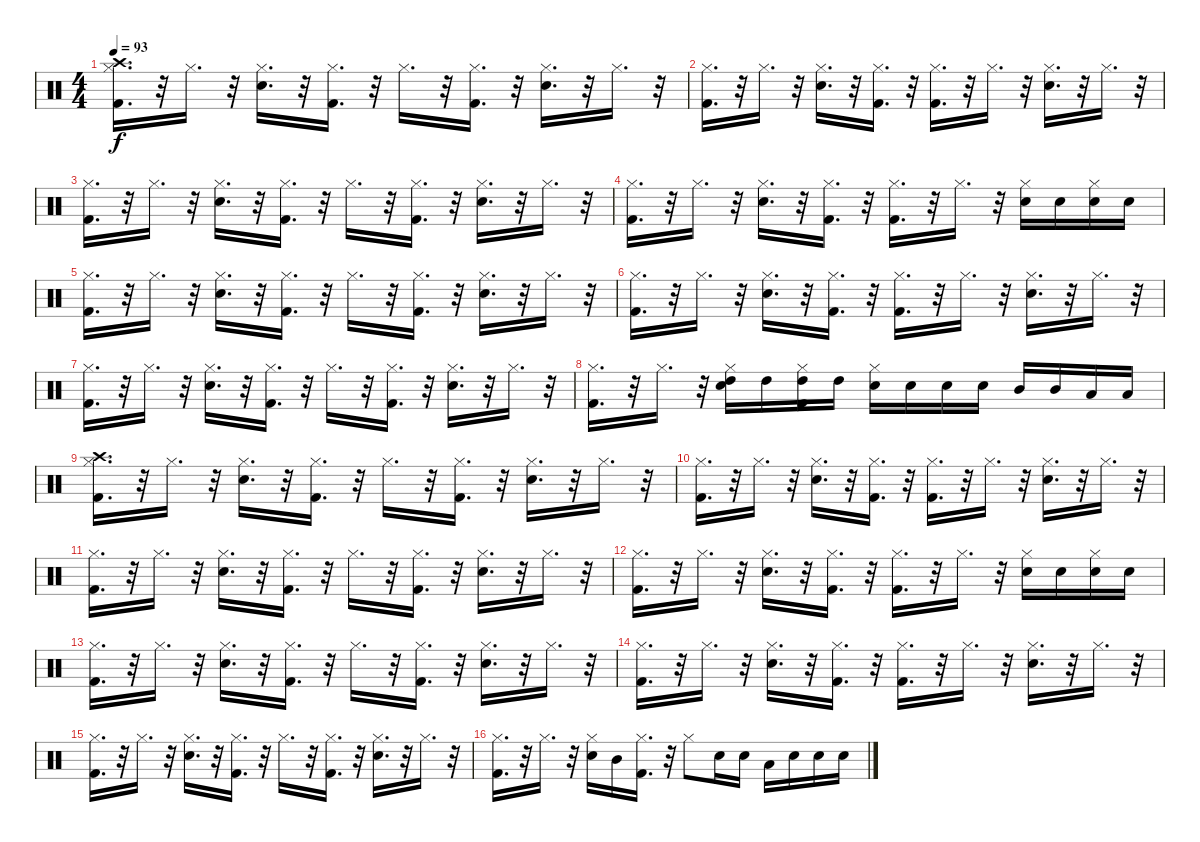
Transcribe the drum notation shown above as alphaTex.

\track "" {instrument percussion}
\staff {score}
\articulation defaults
\ts (4 4)
\tempo 93
\clef neutral
\ks c
("Hi-Hat (closed)" "Crash high (hit)" "Kick (hit) 2").16{d dy f} r.32 "Hi-Hat (closed)".16{d} r.32 ("Hi-Hat (closed)" "Snare (hit) 2").16{d} r.32 ("Hi-Hat (closed)" "Kick (hit) 2").16{d} r.32 "Hi-Hat (closed)".16{d} r.32 ("Hi-Hat (closed)" "Kick (hit) 2").16{d} r.32 ("Hi-Hat (closed)" "Snare (hit) 2").16{d} r.32 "Hi-Hat (closed)".16{d} r.32 |
("Hi-Hat (closed)" "Kick (hit) 2").16{d} r.32 "Hi-Hat (closed)".16{d} r.32 ("Hi-Hat (closed)" "Snare (hit) 2").16{d} r.32 ("Hi-Hat (closed)" "Kick (hit) 2").16{d} r.32 ("Hi-Hat (closed)" "Kick (hit) 2").16{d} r.32 "Hi-Hat (closed)".16{d} r.32 ("Hi-Hat (closed)" "Snare (hit) 2").16{d} r.32 "Hi-Hat (closed)".16{d} r.32 |
("Hi-Hat (closed)" "Kick (hit) 2").16{d} r.32 "Hi-Hat (closed)".16{d} r.32 ("Hi-Hat (closed)" "Snare (hit) 2").16{d} r.32 ("Hi-Hat (closed)" "Kick (hit) 2").16{d} r.32 "Hi-Hat (closed)".16{d} r.32 ("Hi-Hat (closed)" "Kick (hit) 2").16{d} r.32 ("Hi-Hat (closed)" "Snare (hit) 2").16{d} r.32 "Hi-Hat (closed)".16{d} r.32 |
("Hi-Hat (closed)" "Kick (hit) 2").16{d} r.32 "Hi-Hat (closed)".16{d} r.32 ("Hi-Hat (closed)" "Snare (hit) 2").16{d} r.32 ("Hi-Hat (closed)" "Kick (hit) 2").16{d} r.32 ("Hi-Hat (closed)" "Kick (hit) 2").16{d} r.32 "Hi-Hat (closed)".16{d} r.32 ("Hi-Hat (closed)" "Snare (hit) 2").16 "Snare (hit) 2".16 ("Snare (hit) 2" "Hi-Hat (closed)").16 "Snare (hit) 2".16 |
("Hi-Hat (closed)" "Kick (hit) 2").16{d} r.32 "Hi-Hat (closed)".16{d} r.32 ("Hi-Hat (closed)" "Snare (hit) 2").16{d} r.32 ("Hi-Hat (closed)" "Kick (hit) 2").16{d} r.32 "Hi-Hat (closed)".16{d} r.32 ("Hi-Hat (closed)" "Kick (hit) 2").16{d} r.32 ("Hi-Hat (closed)" "Snare (hit) 2").16{d} r.32 "Hi-Hat (closed)".16{d} r.32 |
("Hi-Hat (closed)" "Kick (hit) 2").16{d} r.32 "Hi-Hat (closed)".16{d} r.32 ("Hi-Hat (closed)" "Snare (hit) 2").16{d} r.32 ("Hi-Hat (closed)" "Kick (hit) 2").16{d} r.32 ("Hi-Hat (closed)" "Kick (hit) 2").16{d} r.32 "Hi-Hat (closed)".16{d} r.32 ("Hi-Hat (closed)" "Snare (hit) 2").16{d} r.32 "Hi-Hat (closed)".16{d} r.32 |
("Hi-Hat (closed)" "Kick (hit) 2").16{d} r.32 "Hi-Hat (closed)".16{d} r.32 ("Hi-Hat (closed)" "Snare (hit) 2").16{d} r.32 ("Hi-Hat (closed)" "Kick (hit) 2").16{d} r.32 "Hi-Hat (closed)".16{d} r.32 ("Hi-Hat (closed)" "Kick (hit) 2").16{d} r.32 ("Hi-Hat (closed)" "Snare (hit) 2").16{d} r.32 "Hi-Hat (closed)".16{d} r.32 |
("Hi-Hat (closed)" "Kick (hit) 2").16{d} r.32 "Hi-Hat (closed)".16{d} r.32 ("High Tom (hit)" "Hi-Hat (closed)" "Snare (hit) 2").16 "High Tom (hit)".16 ("High Tom (hit)" "Hi-Hat (closed)" "Kick (hit) 2").16 "High Tom (hit)".16 ("Snare (hit) 2" "Hi-Hat (closed)").16 "Snare (hit) 2".16 "Snare (hit) 2".16 "Snare (hit) 2".16 "Mid Tom (hit)".16 "Mid Tom (hit)".16 "Low Tom (hit)".16 "Low Tom (hit)".16 |
("Hi-Hat (closed)" "Crash high (hit)" "Kick (hit) 2").16{d} r.32 "Hi-Hat (closed)".16{d} r.32 ("Hi-Hat (closed)" "Snare (hit) 2").16{d} r.32 ("Hi-Hat (closed)" "Kick (hit) 2").16{d} r.32 "Hi-Hat (closed)".16{d} r.32 ("Hi-Hat (closed)" "Kick (hit) 2").16{d} r.32 ("Hi-Hat (closed)" "Snare (hit) 2").16{d} r.32 "Hi-Hat (closed)".16{d} r.32 |
("Hi-Hat (closed)" "Kick (hit) 2").16{d} r.32 "Hi-Hat (closed)".16{d} r.32 ("Hi-Hat (closed)" "Snare (hit) 2").16{d} r.32 ("Hi-Hat (closed)" "Kick (hit) 2").16{d} r.32 ("Hi-Hat (closed)" "Kick (hit) 2").16{d} r.32 "Hi-Hat (closed)".16{d} r.32 ("Hi-Hat (closed)" "Snare (hit) 2").16{d} r.32 "Hi-Hat (closed)".16{d} r.32 |
("Hi-Hat (closed)" "Kick (hit) 2").16{d} r.32 "Hi-Hat (closed)".16{d} r.32 ("Hi-Hat (closed)" "Snare (hit) 2").16{d} r.32 ("Hi-Hat (closed)" "Kick (hit) 2").16{d} r.32 "Hi-Hat (closed)".16{d} r.32 ("Hi-Hat (closed)" "Kick (hit) 2").16{d} r.32 ("Hi-Hat (closed)" "Snare (hit) 2").16{d} r.32 "Hi-Hat (closed)".16{d} r.32 |
("Hi-Hat (closed)" "Kick (hit) 2").16{d} r.32 "Hi-Hat (closed)".16{d} r.32 ("Hi-Hat (closed)" "Snare (hit) 2").16{d} r.32 ("Hi-Hat (closed)" "Kick (hit) 2").16{d} r.32 ("Hi-Hat (closed)" "Kick (hit) 2").16{d} r.32 "Hi-Hat (closed)".16{d} r.32 ("Hi-Hat (closed)" "Snare (hit) 2").16 "Snare (hit) 2".16 ("Snare (hit) 2" "Hi-Hat (closed)").16 "Snare (hit) 2".16 |
("Hi-Hat (closed)" "Kick (hit) 2").16{d} r.32 "Hi-Hat (closed)".16{d} r.32 ("Hi-Hat (closed)" "Snare (hit) 2").16{d} r.32 ("Hi-Hat (closed)" "Kick (hit) 2").16{d} r.32 "Hi-Hat (closed)".16{d} r.32 ("Hi-Hat (closed)" "Kick (hit) 2").16{d} r.32 ("Hi-Hat (closed)" "Snare (hit) 2").16{d} r.32 "Hi-Hat (closed)".16{d} r.32 |
("Hi-Hat (closed)" "Kick (hit) 2").16{d} r.32 "Hi-Hat (closed)".16{d} r.32 ("Hi-Hat (closed)" "Snare (hit) 2").16{d} r.32 ("Hi-Hat (closed)" "Kick (hit) 2").16{d} r.32 ("Hi-Hat (closed)" "Kick (hit) 2").16{d} r.32 "Hi-Hat (closed)".16{d} r.32 ("Hi-Hat (closed)" "Snare (hit) 2").16{d} r.32 "Hi-Hat (closed)".16{d} r.32 |
("Hi-Hat (closed)" "Kick (hit) 2").16{d} r.32 "Hi-Hat (closed)".16{d} r.32 ("Hi-Hat (closed)" "Snare (hit) 2").16{d} r.32 ("Hi-Hat (closed)" "Kick (hit) 2").16{d} r.32 "Hi-Hat (closed)".16{d} r.32 ("Hi-Hat (closed)" "Kick (hit) 2").16{d} r.32 ("Hi-Hat (closed)" "Snare (hit) 2").16{d} r.32 "Hi-Hat (closed)".16{d} r.32 |
("Hi-Hat (closed)" "Kick (hit) 2").16{d} r.32 "Hi-Hat (closed)".16{d} r.32 ("Hi-Hat (closed)" "Snare (hit) 2").16 "Mid Tom (hit)".16 ("Hi-Hat (closed)" "Kick (hit) 2").16{d} r.32 "Hi-Hat (closed)".8 "Snare (hit) 2".16 "Snare (hit) 2".16 "Low Tom (hit)".16 "Snare (hit) 2".16 "Snare (hit) 2".16 "Snare (hit) 2".16
